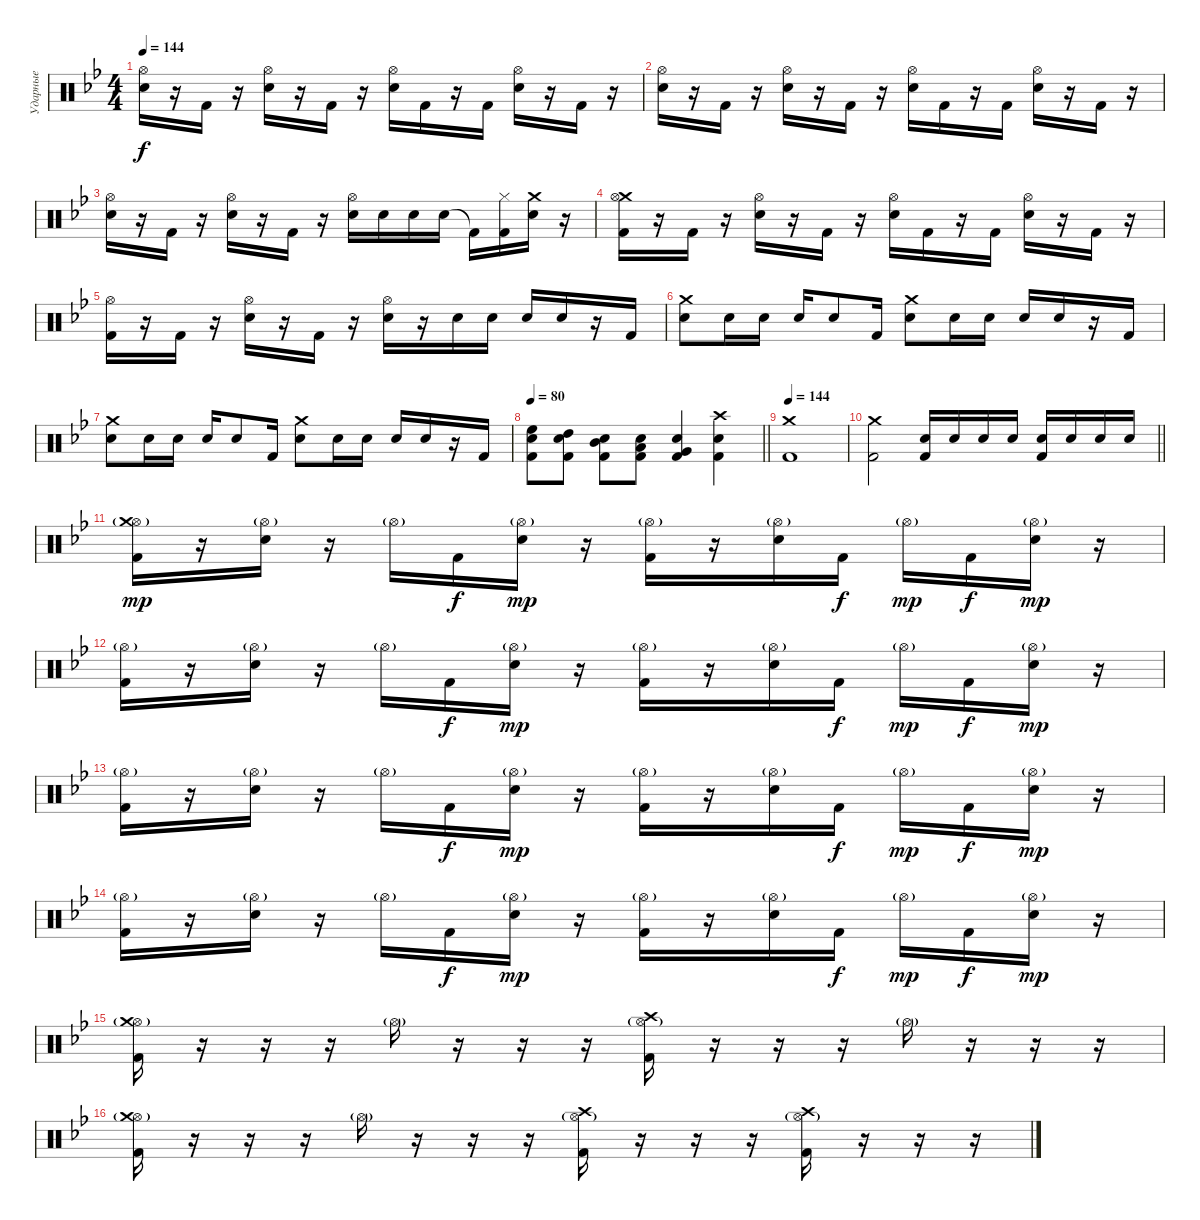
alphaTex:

\track ("Ударные" "Ударные") {instrument percussion}
\staff {score}
\articulation defaults
\ts (4 4)
\tempo 144
\clef neutral
\ks gminor
("Electric Snare (hit)" "Hi-Hat (open)").16{dy f} r.16 "Kick (hit) 2".16 r.16 ("Electric Snare (hit)" "Hi-Hat (open)").16 r.16 "Kick (hit) 2".16 r.16 ("Electric Snare (hit)" "Hi-Hat (open)").16 "Kick (hit) 2".16 r.16 "Kick (hit) 2".16 ("Electric Snare (hit)" "Hi-Hat (open)").16 r.16 "Kick (hit) 2".16 r.16 |
("Electric Snare (hit)" "Hi-Hat (open)").16 r.16 "Kick (hit) 2".16 r.16 ("Electric Snare (hit)" "Hi-Hat (open)").16 r.16 "Kick (hit) 2".16 r.16 ("Electric Snare (hit)" "Hi-Hat (open)").16 "Kick (hit) 2".16 r.16 "Kick (hit) 2".16 ("Electric Snare (hit)" "Hi-Hat (open)").16 r.16 "Kick (hit) 2".16 r.16 |
("Electric Snare (hit)" "Hi-Hat (open)").16 r.16 "Kick (hit) 2".16 r.16 ("Electric Snare (hit)" "Hi-Hat (open)").16 r.16 "Kick (hit) 2".16 r.16 ("Electric Snare (hit)" "Hi-Hat (open)").16 "Electric Snare (hit)".16 "Electric Snare (hit)".16 "Electric Snare (hit)".16 "Kick (hit) 2"{t}.16 ("Kick (hit) 2" "Hi-Hat (closed)").16 ("Crash medium (hit)" "Electric Snare (hit)").16 r.16 |
("Crash medium (hit)" "Kick (hit) 2" "Hi-Hat (open)").16 r.16 "Kick (hit) 2".16 r.16 ("Electric Snare (hit)" "Hi-Hat (open)").16 r.16 "Kick (hit) 2".16 r.16 ("Electric Snare (hit)" "Hi-Hat (open)").16 "Kick (hit) 2".16 r.16 "Kick (hit) 2".16 ("Electric Snare (hit)" "Hi-Hat (open)").16 r.16 "Kick (hit) 2".16 r.16 |
("Kick (hit) 2" "Hi-Hat (open)").16 r.16 "Kick (hit) 2".16 r.16 ("Electric Snare (hit)" "Hi-Hat (open)").16 r.16 "Kick (hit) 2".16 r.16 ("Electric Snare (hit)" "Hi-Hat (open)").16 r.16 "Electric Snare (hit)".16 "Electric Snare (hit)".16 "Electric Snare (hit)".16 "Electric Snare (hit)".16 r.16 "Kick (hit) 2".16 |
("Crash medium (hit)" "Electric Snare (hit)").8 "Electric Snare (hit)".16 "Electric Snare (hit)".16 "Electric Snare (hit)".16 "Electric Snare (hit)".8 "Kick (hit) 2".16 ("Crash medium (hit)" "Electric Snare (hit)").8 "Electric Snare (hit)".16 "Electric Snare (hit)".16 "Electric Snare (hit)".16 "Electric Snare (hit)".16 r.16 "Kick (hit) 2".16 |
("Crash medium (hit)" "Electric Snare (hit)").8 "Electric Snare (hit)".16 "Electric Snare (hit)".16 "Electric Snare (hit)".16 "Electric Snare (hit)".8 "Kick (hit) 2".16 ("Crash medium (hit)" "Electric Snare (hit)").8 "Electric Snare (hit)".16 "Electric Snare (hit)".16 "Electric Snare (hit)".16 "Electric Snare (hit)".16 r.16 "Kick (hit) 2".16 |
\tempo 80
\barLineRight lightlight
("Kick (hit) 2" "Electric Snare (hit)" "High Floor Tom (hit)").8 ("Kick (hit) 2" "Electric Snare (hit)" "High Tom (hit)").8 ("Kick (hit) 2" "Electric Snare (hit)" "Mid Tom (hit)").8 ("Kick (hit) 2" "Electric Snare (hit)" "Low Tom (hit)").8 ("Kick (hit) 2" "Electric Snare (hit)" "Very Low Tom (hit)").4 ("Kick (hit) 2" "Electric Snare (hit)" "Crash high (hit)").4 |
\section ("" "")
\tempo 144
("Crash medium (hit)" "Kick (hit) 2").1 |
\barLineRight lightlight
("Crash medium (hit)" "Kick (hit) 2").2 ("Electric Snare (hit)" "Kick (hit) 2").16 "Electric Snare (hit)".16 "Electric Snare (hit)".16 "Electric Snare (hit)".16 ("Electric Snare (hit)" "Kick (hit) 2").16 "Electric Snare (hit)".16 "Electric Snare (hit)".16 "Electric Snare (hit)".16 |
\section ("" "")
("Hi-Hat (open)"{g} "Crash medium (hit)" "Kick (hit) 2").16{dy mp} r.16 ("Hi-Hat (open)"{g} "Electric Snare (hit)").16 r.16 "Hi-Hat (open)"{g}.16 "Kick (hit) 2".16{dy f} ("Hi-Hat (open)"{g} "Electric Snare (hit)").16{dy mp} r.16 ("Hi-Hat (open)"{g} "Kick (hit) 2").16 r.16 ("Hi-Hat (open)"{g} "Electric Snare (hit)").16 "Kick (hit) 2".16{dy f} "Hi-Hat (open)"{g}.16{dy mp} "Kick (hit) 2".16{dy f} ("Hi-Hat (open)"{g} "Electric Snare (hit)").16{dy mp} r.16 |
("Hi-Hat (open)"{g} "Kick (hit) 2").16 r.16 ("Hi-Hat (open)"{g} "Electric Snare (hit)").16 r.16 "Hi-Hat (open)"{g}.16 "Kick (hit) 2".16{dy f} ("Hi-Hat (open)"{g} "Electric Snare (hit)").16{dy mp} r.16 ("Hi-Hat (open)"{g} "Kick (hit) 2").16 r.16 ("Hi-Hat (open)"{g} "Electric Snare (hit)").16 "Kick (hit) 2".16{dy f} "Hi-Hat (open)"{g}.16{dy mp} "Kick (hit) 2".16{dy f} ("Hi-Hat (open)"{g} "Electric Snare (hit)").16{dy mp} r.16 |
("Hi-Hat (open)"{g} "Kick (hit) 2").16 r.16 ("Hi-Hat (open)"{g} "Electric Snare (hit)").16 r.16 "Hi-Hat (open)"{g}.16 "Kick (hit) 2".16{dy f} ("Hi-Hat (open)"{g} "Electric Snare (hit)").16{dy mp} r.16 ("Hi-Hat (open)"{g} "Kick (hit) 2").16 r.16 ("Hi-Hat (open)"{g} "Electric Snare (hit)").16 "Kick (hit) 2".16{dy f} "Hi-Hat (open)"{g}.16{dy mp} "Kick (hit) 2".16{dy f} ("Hi-Hat (open)"{g} "Electric Snare (hit)").16{dy mp} r.16 |
("Hi-Hat (open)"{g} "Kick (hit) 2").16 r.16 ("Hi-Hat (open)"{g} "Electric Snare (hit)").16 r.16 "Hi-Hat (open)"{g}.16 "Kick (hit) 2".16{dy f} ("Hi-Hat (open)"{g} "Electric Snare (hit)").16{dy mp} r.16 ("Hi-Hat (open)"{g} "Kick (hit) 2").16 r.16 ("Hi-Hat (open)"{g} "Electric Snare (hit)").16 "Kick (hit) 2".16{dy f} "Hi-Hat (open)"{g}.16{dy mp} "Kick (hit) 2".16{dy f} ("Hi-Hat (open)"{g} "Electric Snare (hit)").16{dy mp} r.16 |
("Hi-Hat (open)"{g} "Crash medium (hit)" "Kick (hit) 2").16 r.16 r.16 r.16 "Hi-Hat (open)"{g}.16 r.16 r.16 r.16 ("Hi-Hat (open)"{g} "Crash high (hit)" "Kick (hit) 2").16 r.16 r.16 r.16 "Hi-Hat (open)"{g}.16 r.16 r.16 r.16 |
("Hi-Hat (open)"{g} "Crash medium (hit)" "Kick (hit) 2").16 r.16 r.16 r.16 "Hi-Hat (open)"{g}.16 r.16 r.16 r.16 ("Hi-Hat (open)"{g} "Crash high (hit)" "Kick (hit) 2").16 r.16 r.16 r.16 ("Hi-Hat (open)"{g} "Kick (hit) 2" "Crash high (hit)").16 r.16 r.16 r.16
